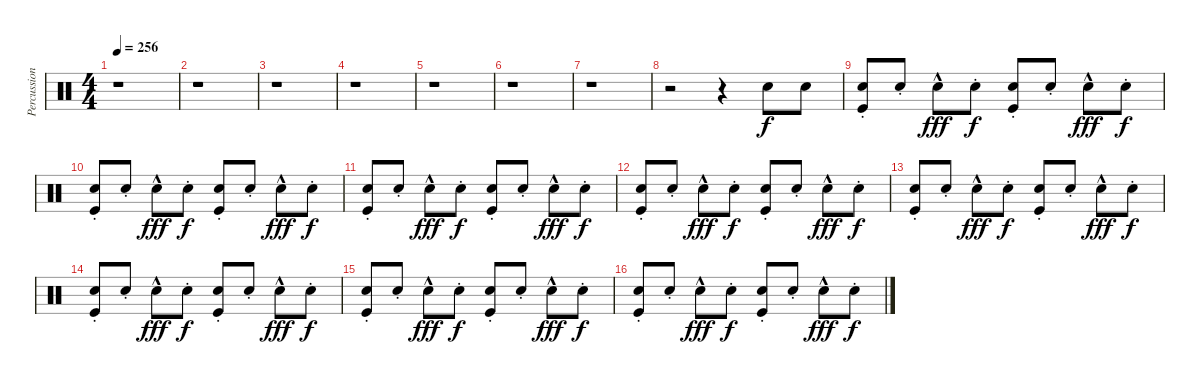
\track ("Percussion" "Percussion") {instrument percussion}
\staff {score}
\articulation defaults
\ts (4 4)
\tempo 256
\clef neutral
\ks c
r.1{dy f} |
r.1 |
r.1 |
r.1 |
r.1 |
r.1 |
r.1 |
r.2 r.4 "Snare (hit) 2".8 "Snare (hit) 2".8 |
("Snare (hit) 2"{st} "Kick (hit)").8 "Snare (hit) 2"{st}.8 "Snare (hit) 2"{hac}.8{dy fff} "Snare (hit) 2"{st}.8{dy f} ("Snare (hit) 2"{st} "Kick (hit)").8 "Snare (hit) 2"{st}.8 "Snare (hit) 2"{hac}.8{dy fff} "Snare (hit) 2"{st}.8{dy f} |
("Snare (hit) 2"{st} "Kick (hit)").8 "Snare (hit) 2"{st}.8 "Snare (hit) 2"{hac}.8{dy fff} "Snare (hit) 2"{st}.8{dy f} ("Snare (hit) 2"{st} "Kick (hit)").8 "Snare (hit) 2"{st}.8 "Snare (hit) 2"{hac}.8{dy fff} "Snare (hit) 2"{st}.8{dy f} |
("Snare (hit) 2"{st} "Kick (hit)").8 "Snare (hit) 2"{st}.8 "Snare (hit) 2"{hac}.8{dy fff} "Snare (hit) 2"{st}.8{dy f} ("Snare (hit) 2"{st} "Kick (hit)").8 "Snare (hit) 2"{st}.8 "Snare (hit) 2"{hac}.8{dy fff} "Snare (hit) 2"{st}.8{dy f} |
("Snare (hit) 2"{st} "Kick (hit)").8 "Snare (hit) 2"{st}.8 "Snare (hit) 2"{hac}.8{dy fff} "Snare (hit) 2"{st}.8{dy f} ("Snare (hit) 2"{st} "Kick (hit)").8 "Snare (hit) 2"{st}.8 "Snare (hit) 2"{hac}.8{dy fff} "Snare (hit) 2"{st}.8{dy f} |
("Snare (hit) 2"{st} "Kick (hit)").8 "Snare (hit) 2"{st}.8 "Snare (hit) 2"{hac}.8{dy fff} "Snare (hit) 2"{st}.8{dy f} ("Snare (hit) 2"{st} "Kick (hit)").8 "Snare (hit) 2"{st}.8 "Snare (hit) 2"{hac}.8{dy fff} "Snare (hit) 2"{st}.8{dy f} |
("Snare (hit) 2"{st} "Kick (hit)").8 "Snare (hit) 2"{st}.8 "Snare (hit) 2"{hac}.8{dy fff} "Snare (hit) 2"{st}.8{dy f} ("Snare (hit) 2"{st} "Kick (hit)").8 "Snare (hit) 2"{st}.8 "Snare (hit) 2"{hac}.8{dy fff} "Snare (hit) 2"{st}.8{dy f} |
("Snare (hit) 2"{st} "Kick (hit)").8 "Snare (hit) 2"{st}.8 "Snare (hit) 2"{hac}.8{dy fff} "Snare (hit) 2"{st}.8{dy f} ("Snare (hit) 2"{st} "Kick (hit)").8 "Snare (hit) 2"{st}.8 "Snare (hit) 2"{hac}.8{dy fff} "Snare (hit) 2"{st}.8{dy f} |
("Snare (hit) 2"{st} "Kick (hit)").8 "Snare (hit) 2"{st}.8 "Snare (hit) 2"{hac}.8{dy fff} "Snare (hit) 2"{st}.8{dy f} ("Snare (hit) 2"{st} "Kick (hit)").8 "Snare (hit) 2"{st}.8 "Snare (hit) 2"{hac}.8{dy fff} "Snare (hit) 2"{st}.8{dy f}
